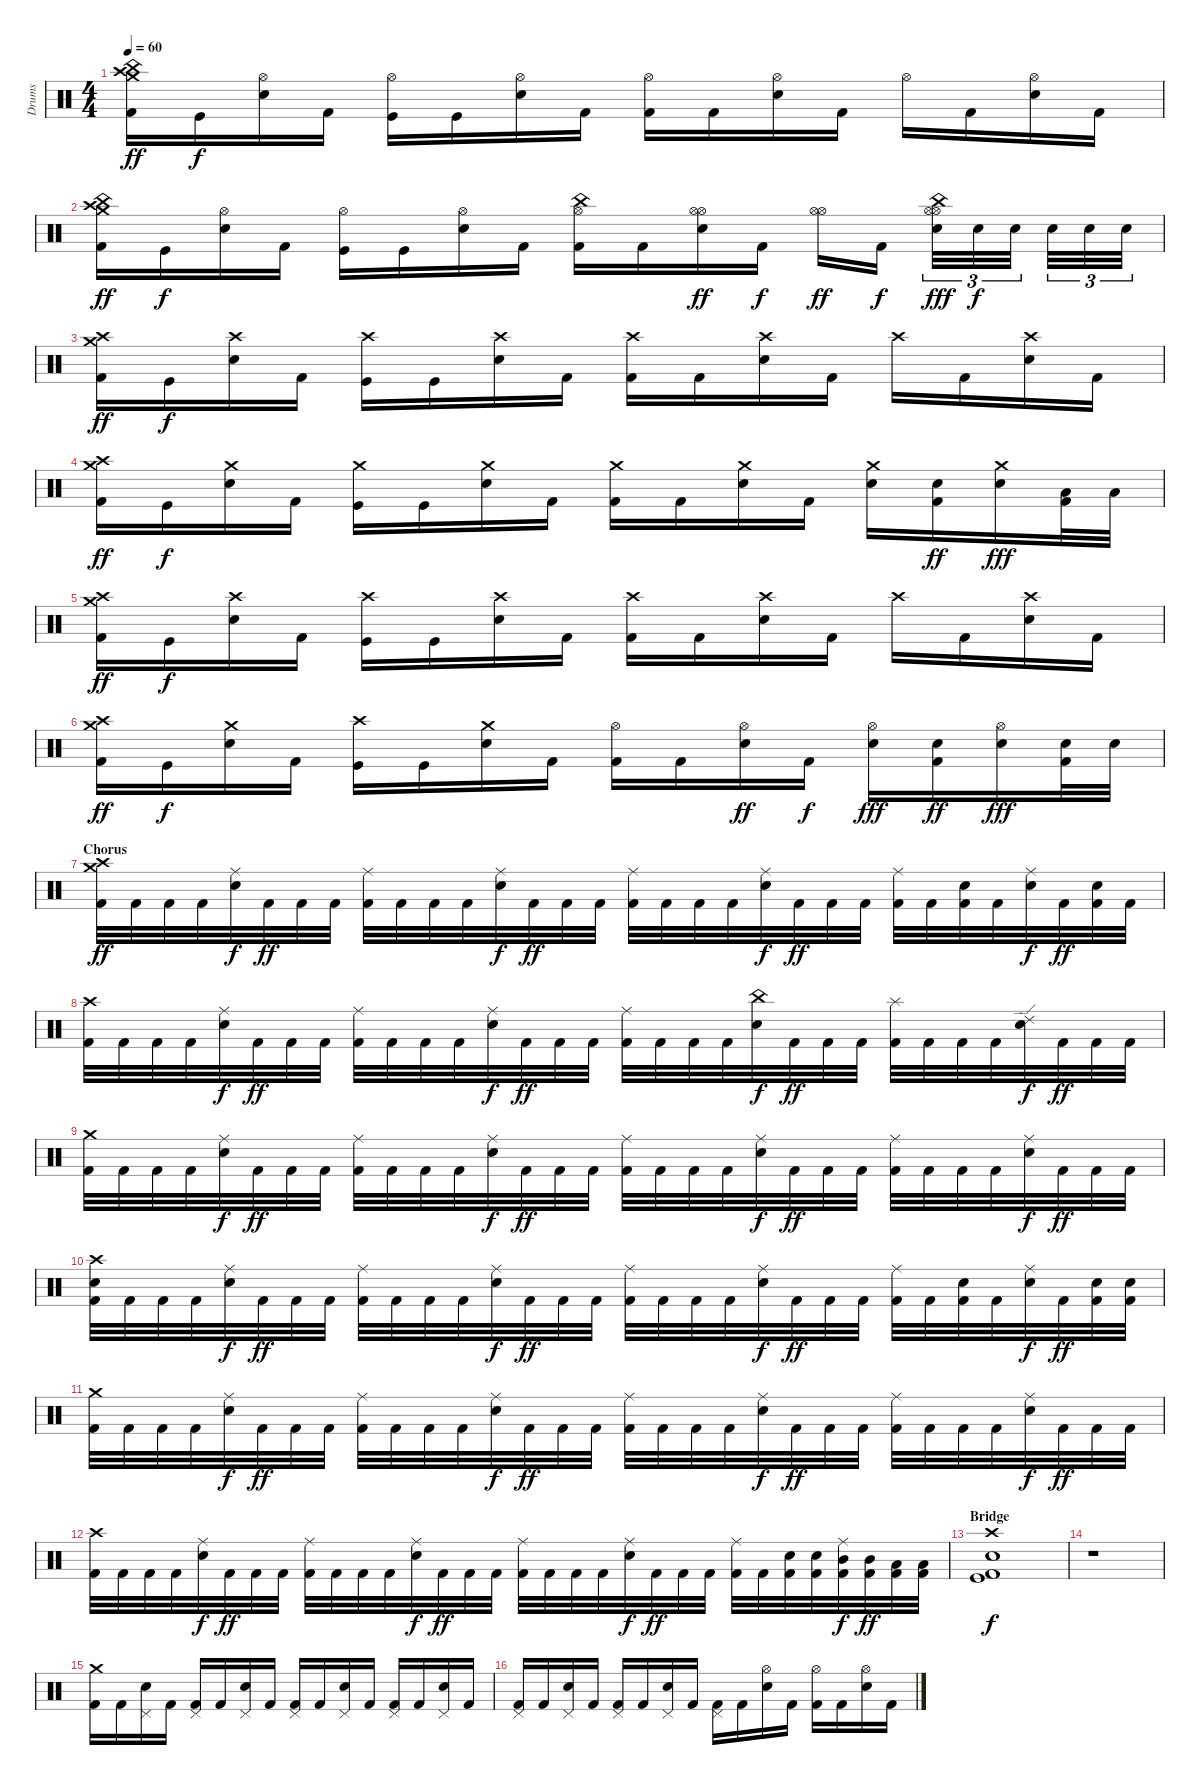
\track ("Drums" "Drums") {instrument percussion}
\staff {score}
\articulation defaults
\ts (4 4)
\tempo 60
\clef neutral
\ks c
("Crash medium (hit)" "Crash high (hit)" "China (hit)" "Kick (hit) 2").16{dy ff} "Kick (hit)".16{dy f} ("Hi-Hat (open)" "Snare (hit) 2").16 "Kick (hit) 2".16 ("Hi-Hat (open)" "Kick (hit)").16 "Kick (hit)".16 ("Hi-Hat (open)" "Snare (hit) 2").16 "Kick (hit) 2".16 ("Hi-Hat (open)" "Kick (hit) 2").16 "Kick (hit) 2".16 ("Hi-Hat (open)" "Snare (hit) 2").16 "Kick (hit) 2".16 "Hi-Hat (open)".16 "Kick (hit) 2".16 ("Hi-Hat (open)" "Snare (hit) 2").16 "Kick (hit) 2".16 |
("Crash medium (hit)" "Crash high (hit)" "China (hit)" "Kick (hit) 2").16{dy ff} "Kick (hit)".16{dy f} ("Hi-Hat (open)" "Snare (hit) 2").16 "Kick (hit) 2".16 ("Hi-Hat (open)" "Kick (hit)").16 "Kick (hit)".16 ("Hi-Hat (open)" "Snare (hit) 2").16 "Kick (hit) 2".16 ("Hi-Hat (open)" "China (hit)" "Kick (hit) 2").16 "Kick (hit) 2".16 ("Hi-Hat (open)" "Hi-Hat (open)" "Snare (hit) 2").16{dy ff} "Kick (hit) 2".16{dy f} ("Hi-Hat (open)" "Hi-Hat (open)").16{dy ff} "Kick (hit) 2".16{dy f} ("Hi-Hat (open)" "Hi-Hat (open)" "China (hit)" "Snare (hit) 2").32{tu (3 2) dy fff} "Snare (hit) 2".32{tu (3 2) dy f} "Snare (hit) 2".32{tu (3 2)} "Snare (hit) 2".32{tu (3 2)} "Snare (hit) 2".32{tu (3 2)} "Snare (hit) 2".32{tu (3 2)} |
("Crash medium (hit)" "Crash high (hit)" "Kick (hit) 2").16{dy ff} "Kick (hit)".16{dy f} ("Crash high (hit)" "Snare (hit) 2").16 "Kick (hit) 2".16 ("Crash high (hit)" "Kick (hit)").16 "Kick (hit)".16 ("Crash high (hit)" "Snare (hit) 2").16 "Kick (hit) 2".16 ("Crash high (hit)" "Kick (hit) 2").16 "Kick (hit) 2".16 ("Crash high (hit)" "Snare (hit) 2").16 "Kick (hit) 2".16 "Crash high (hit)".16 "Kick (hit) 2".16 ("Crash high (hit)" "Snare (hit) 2").16 "Kick (hit) 2".16 |
("Crash medium (hit)" "Crash high (hit)" "Kick (hit) 2").16{dy ff} "Kick (hit)".16{dy f} ("Crash medium (hit)" "Snare (hit) 2").16 "Kick (hit) 2".16 ("Crash medium (hit)" "Kick (hit)").16 "Kick (hit)".16 ("Crash medium (hit)" "Snare (hit) 2").16 "Kick (hit) 2".16 ("Crash medium (hit)" "Kick (hit) 2").16 "Kick (hit) 2".16 ("Crash medium (hit)" "Snare (hit) 2").16 "Kick (hit) 2".16 ("Crash medium (hit)" "Snare (hit) 2").16 ("Snare (hit) 2" "Kick (hit) 2").16{dy ff} ("Crash medium (hit)" "Snare (hit) 2").16{dy fff} ("Low Tom (hit)" "Kick (hit) 2").32 "Low Tom (hit)".32 |
("Crash medium (hit)" "Crash high (hit)" "Kick (hit) 2").16{dy ff} "Kick (hit)".16{dy f} ("Crash high (hit)" "Snare (hit) 2").16 "Kick (hit) 2".16 ("Crash high (hit)" "Kick (hit)").16 "Kick (hit)".16 ("Crash high (hit)" "Snare (hit) 2").16 "Kick (hit) 2".16 ("Crash high (hit)" "Kick (hit) 2").16 "Kick (hit) 2".16 ("Crash high (hit)" "Snare (hit) 2").16 "Kick (hit) 2".16 "Crash high (hit)".16 "Kick (hit) 2".16 ("Crash high (hit)" "Snare (hit) 2").16 "Kick (hit) 2".16 |
("Crash medium (hit)" "Crash high (hit)" "Kick (hit) 2").16{dy ff} "Kick (hit)".16{dy f} ("Crash medium (hit)" "Snare (hit) 2").16 "Kick (hit) 2".16 ("Crash high (hit)" "Kick (hit)").16 "Kick (hit)".16 ("Crash medium (hit)" "Snare (hit) 2").16 "Kick (hit) 2".16 ("Hi-Hat (open)" "Kick (hit) 2").16 "Kick (hit) 2".16 ("Hi-Hat (open)" "Snare (hit) 2").16{dy ff} "Kick (hit) 2".16{dy f} ("Hi-Hat (open)" "Snare (hit) 2").16{dy fff} ("Snare (hit) 2" "Kick (hit) 2").16{dy ff} ("Hi-Hat (open)" "Snare (hit) 2").16{dy fff} ("Snare (hit) 2" "Kick (hit) 2").32 "Snare (hit) 2".32 |
\section ("" "Chorus")
("Crash medium (hit)" "Crash high (hit)" "Kick (hit) 2").32{dy ff} "Kick (hit) 2".32 "Kick (hit) 2".32 "Kick (hit) 2".32 ("Ride (middle)" "Snare (hit) 2").32{dy f} "Kick (hit) 2".32{dy ff} "Kick (hit) 2".32 "Kick (hit) 2".32 ("Ride (middle)" "Kick (hit) 2").32 "Kick (hit) 2".32 "Kick (hit) 2".32 "Kick (hit) 2".32 ("Ride (middle)" "Snare (hit) 2").32{dy f} "Kick (hit) 2".32{dy ff} "Kick (hit) 2".32 "Kick (hit) 2".32 ("Ride (middle)" "Kick (hit) 2").32 "Kick (hit) 2".32 "Kick (hit) 2".32 "Kick (hit) 2".32 ("Ride (middle)" "Snare (hit) 2").32{dy f} "Kick (hit) 2".32{dy ff} "Kick (hit) 2".32 "Kick (hit) 2".32 ("Ride (middle)" "Kick (hit) 2").32 "Kick (hit) 2".32 ("Snare (hit) 2" "Kick (hit) 2").32 "Kick (hit) 2".32 ("Ride (middle)" "Snare (hit) 2").32{dy f} "Kick (hit) 2".32{dy ff} ("Snare (hit) 2" "Kick (hit) 2").32 "Kick (hit) 2".32 |
("Crash high (hit)" "Kick (hit) 2").32 "Kick (hit) 2".32 "Kick (hit) 2".32 "Kick (hit) 2".32 ("Ride (middle)" "Snare (hit) 2").32{dy f} "Kick (hit) 2".32{dy ff} "Kick (hit) 2".32 "Kick (hit) 2".32 ("Ride (middle)" "Kick (hit) 2").32 "Kick (hit) 2".32 "Kick (hit) 2".32 "Kick (hit) 2".32 ("Ride (middle)" "Snare (hit) 2").32{dy f} "Kick (hit) 2".32{dy ff} "Kick (hit) 2".32 "Kick (hit) 2".32 ("Ride (middle)" "Kick (hit) 2").32 "Kick (hit) 2".32 "Kick (hit) 2".32 "Kick (hit) 2".32 ("China (hit)" "Snare (hit) 2").32{dy f} "Kick (hit) 2".32{dy ff} "Kick (hit) 2".32 "Kick (hit) 2".32 ("Splash (hit)" "Kick (hit) 2").32 "Kick (hit) 2".32 "Kick (hit) 2".32 "Kick (hit) 2".32 ("Ride (edge) 2" "Snare (hit) 2").32{dy f} "Kick (hit) 2".32{dy ff} "Kick (hit) 2".32 "Kick (hit) 2".32 |
("Crash medium (hit)" "Kick (hit) 2").32 "Kick (hit) 2".32 "Kick (hit) 2".32 "Kick (hit) 2".32 ("Ride (middle)" "Snare (hit) 2").32{dy f} "Kick (hit) 2".32{dy ff} "Kick (hit) 2".32 "Kick (hit) 2".32 ("Ride (middle)" "Kick (hit) 2").32 "Kick (hit) 2".32 "Kick (hit) 2".32 "Kick (hit) 2".32 ("Ride (middle)" "Snare (hit) 2").32{dy f} "Kick (hit) 2".32{dy ff} "Kick (hit) 2".32 "Kick (hit) 2".32 ("Ride (middle)" "Kick (hit) 2").32 "Kick (hit) 2".32 "Kick (hit) 2".32 "Kick (hit) 2".32 ("Ride (middle)" "Snare (hit) 2").32{dy f} "Kick (hit) 2".32{dy ff} "Kick (hit) 2".32 "Kick (hit) 2".32 ("Ride (middle)" "Kick (hit) 2").32 "Kick (hit) 2".32 "Kick (hit) 2".32 "Kick (hit) 2".32 ("Ride (middle)" "Snare (hit) 2").32{dy f} "Kick (hit) 2".32{dy ff} "Kick (hit) 2".32 "Kick (hit) 2".32 |
("Crash high (hit)" "Snare (hit) 2" "Kick (hit) 2").32 "Kick (hit) 2".32 "Kick (hit) 2".32 "Kick (hit) 2".32 ("Ride (middle)" "Snare (hit) 2").32{dy f} "Kick (hit) 2".32{dy ff} "Kick (hit) 2".32 "Kick (hit) 2".32 ("Ride (middle)" "Kick (hit) 2").32 "Kick (hit) 2".32 "Kick (hit) 2".32 "Kick (hit) 2".32 ("Ride (middle)" "Snare (hit) 2").32{dy f} "Kick (hit) 2".32{dy ff} "Kick (hit) 2".32 "Kick (hit) 2".32 ("Ride (middle)" "Kick (hit) 2").32 "Kick (hit) 2".32 "Kick (hit) 2".32 "Kick (hit) 2".32 ("Ride (middle)" "Snare (hit) 2").32{dy f} "Kick (hit) 2".32{dy ff} "Kick (hit) 2".32 "Kick (hit) 2".32 ("Ride (middle)" "Kick (hit) 2").32 "Kick (hit) 2".32 ("Snare (hit) 2" "Kick (hit) 2").32 "Kick (hit) 2".32 ("Ride (middle)" "Snare (hit) 2").32{dy f} "Kick (hit) 2".32{dy ff} ("Snare (hit) 2" "Kick (hit) 2").32 ("Snare (hit) 2" "Kick (hit) 2").32 |
("Crash medium (hit)" "Kick (hit) 2").32 "Kick (hit) 2".32 "Kick (hit) 2".32 "Kick (hit) 2".32 ("Ride (middle)" "Snare (hit) 2").32{dy f} "Kick (hit) 2".32{dy ff} "Kick (hit) 2".32 "Kick (hit) 2".32 ("Ride (middle)" "Kick (hit) 2").32 "Kick (hit) 2".32 "Kick (hit) 2".32 "Kick (hit) 2".32 ("Ride (middle)" "Snare (hit) 2").32{dy f} "Kick (hit) 2".32{dy ff} "Kick (hit) 2".32 "Kick (hit) 2".32 ("Ride (middle)" "Kick (hit) 2").32 "Kick (hit) 2".32 "Kick (hit) 2".32 "Kick (hit) 2".32 ("Ride (middle)" "Snare (hit) 2").32{dy f} "Kick (hit) 2".32{dy ff} "Kick (hit) 2".32 "Kick (hit) 2".32 ("Ride (middle)" "Kick (hit) 2").32 "Kick (hit) 2".32 "Kick (hit) 2".32 "Kick (hit) 2".32 ("Ride (middle)" "Snare (hit) 2").32{dy f} "Kick (hit) 2".32{dy ff} "Kick (hit) 2".32 "Kick (hit) 2".32 |
("Crash high (hit)" "Kick (hit) 2").32 "Kick (hit) 2".32 "Kick (hit) 2".32 "Kick (hit) 2".32 ("Ride (middle)" "Snare (hit) 2").32{dy f} "Kick (hit) 2".32{dy ff} "Kick (hit) 2".32 "Kick (hit) 2".32 ("Ride (middle)" "Kick (hit) 2").32 "Kick (hit) 2".32 "Kick (hit) 2".32 "Kick (hit) 2".32 ("Ride (middle)" "Snare (hit) 2").32{dy f} "Kick (hit) 2".32{dy ff} "Kick (hit) 2".32 "Kick (hit) 2".32 ("Ride (middle)" "Kick (hit) 2").32 "Kick (hit) 2".32 "Kick (hit) 2".32 "Kick (hit) 2".32 ("Ride (middle)" "Snare (hit) 2").32{dy f} "Kick (hit) 2".32{dy ff} "Kick (hit) 2".32 "Kick (hit) 2".32 ("Ride (middle)" "Kick (hit) 2").32 "Kick (hit) 2".32 ("Snare (hit) 2" "Kick (hit) 2").32 ("Snare (hit) 2" "Kick (hit) 2").32 ("Ride (middle)" "Mid Tom (hit)" "Kick (hit) 2").32{dy f} ("Mid Tom (hit)" "Kick (hit) 2").32{dy ff} ("Low Tom (hit)" "Kick (hit) 2").32 ("Low Tom (hit)" "Kick (hit) 2").32 |
\section ("" "Bridge")
("Crash high (hit)" "Snare (hit) 2" "Kick (hit)" "Kick (hit) 2").1{dy f} |
r.1 |
("Crash medium (hit)" "Kick (hit) 2").16 "Kick (hit) 2".16 ("Pedal Hi-Hat (hit)" "Snare (hit) 2").16 "Kick (hit) 2".16 ("Pedal Hi-Hat (hit)" "Kick (hit) 2").16 "Kick (hit) 2".16 ("Pedal Hi-Hat (hit)" "Snare (hit) 2").16 "Kick (hit) 2".16 ("Pedal Hi-Hat (hit)" "Kick (hit) 2").16 "Kick (hit) 2".16 ("Pedal Hi-Hat (hit)" "Snare (hit) 2").16 "Kick (hit) 2".16 ("Pedal Hi-Hat (hit)" "Kick (hit) 2").16 "Kick (hit) 2".16 ("Pedal Hi-Hat (hit)" "Snare (hit) 2").16 "Kick (hit) 2".16 |
("Pedal Hi-Hat (hit)" "Kick (hit) 2").16 "Kick (hit) 2".16 ("Pedal Hi-Hat (hit)" "Snare (hit) 2").16 "Kick (hit) 2".16 ("Pedal Hi-Hat (hit)" "Kick (hit) 2").16 "Kick (hit) 2".16 ("Pedal Hi-Hat (hit)" "Snare (hit) 2").16 "Kick (hit) 2".16 ("Pedal Hi-Hat (hit)" "Kick (hit) 2").16 "Kick (hit) 2".16 ("Hi-Hat (open)" "Snare (hit) 2").16 "Kick (hit) 2".16 ("Hi-Hat (open)" "Kick (hit) 2").16 "Kick (hit) 2".16 ("Hi-Hat (open)" "Snare (hit) 2").16 "Kick (hit) 2".16
